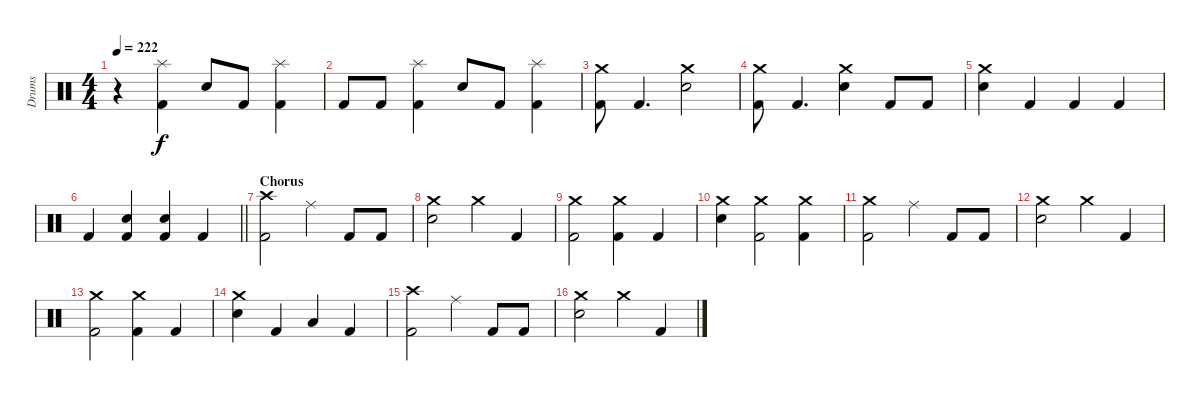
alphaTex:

\track ("Drums" "Drums") {instrument percussion}
\staff {score}
\articulation defaults
\ts (4 4)
\tempo 222
\clef neutral
\ks c
r.4{dy f} ("Splash (hit)" "Kick (hit) 2").4 "Snare (hit) 2".8 "Kick (hit) 2".8 ("Splash (hit)" "Kick (hit) 2").4 |
"Kick (hit) 2".8 "Kick (hit) 2".8 ("Splash (hit)" "Kick (hit) 2").4 "Snare (hit) 2".8 "Kick (hit) 2".8 ("Splash (hit)" "Kick (hit) 2").4 |
("Crash medium (hit)" "Kick (hit) 2").8 "Kick (hit) 2".4{d} ("Crash medium (hit)" "Snare (hit) 2").2 |
("Crash medium (hit)" "Kick (hit) 2").8 "Kick (hit) 2".4{d} ("Crash medium (hit)" "Snare (hit) 2").4 "Kick (hit) 2".8 "Kick (hit) 2".8 |
("Crash medium (hit)" "Snare (hit) 2").4 "Kick (hit) 2".4 "Kick (hit) 2".4 "Kick (hit) 2".4 |
\barLineRight lightlight "Kick (hit) 2".4
("Snare (hit) 2" "Kick (hit) 2").4 ("Snare (hit) 2" "Kick (hit) 2").4 "Kick (hit) 2".4 |
\section ("" "Chorus")
("Crash high (hit)" "Kick (hit) 2").2 "Ride (middle)".4 "Kick (hit) 2".8 "Kick (hit) 2".8 |
("Crash medium (hit)" "Snare (hit) 2").2 "Crash medium (hit)".4 "Kick (hit) 2".4 |
("Crash medium (hit)" "Kick (hit) 2").2 ("Crash medium (hit)" "Kick (hit) 2").4 "Kick (hit) 2".4 |
("Crash medium (hit)" "Snare (hit) 2").4 ("Crash medium (hit)" "Kick (hit) 2").2 ("Crash medium (hit)" "Kick (hit) 2").4 |
("Crash medium (hit)" "Kick (hit) 2").2 "Ride (middle)".4 "Kick (hit) 2".8 "Kick (hit) 2".8 |
("Crash medium (hit)" "Snare (hit) 2").2 "Crash medium (hit)".4 "Kick (hit) 2".4 |
("Crash medium (hit)" "Kick (hit) 2").2 ("Crash medium (hit)" "Kick (hit) 2").4 "Kick (hit) 2".4 |
("Crash medium (hit)" "Snare (hit) 2").4 "Kick (hit) 2".4 "Low Tom (hit)".4 "Kick (hit) 2".4 |
("Crash high (hit)" "Kick (hit) 2").2 "Ride (middle)".4 "Kick (hit) 2".8 "Kick (hit) 2".8 |
("Crash medium (hit)" "Snare (hit) 2").2 "Crash medium (hit)".4 "Kick (hit) 2".4
